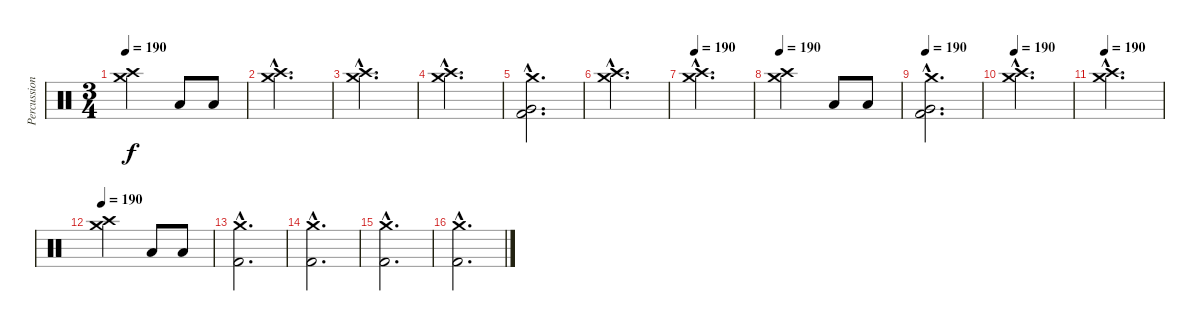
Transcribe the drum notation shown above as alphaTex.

\track ("Percussion" "Percussion") {instrument percussion}
\staff {score}
\articulation defaults
\ts (3 4)
\tempo 190
\clef neutral
\ks c
("Crash medium (hit)" "Crash high (hit)").2{dy f} "Low Tom (hit)".8 "Low Tom (hit)".8 |
("Crash medium (hit)"{hac} "Crash high (hit)"{hac}).2{d} |
("Crash medium (hit)"{hac} "Crash high (hit)"{hac}).2{d} |
("Crash medium (hit)"{hac} "Crash high (hit)"{hac}).2{d} |
("Crash medium (hit)"{hac} "Very Low Tom (hit)"{hac} "Kick (hit) 2"{hac}).2{d} |
("Crash medium (hit)"{hac} "Crash high (hit)"{hac}).2{d} |
\tempo 190
("Crash medium (hit)"{hac} "Crash high (hit)"{hac}).2{d} |
\tempo 190
("Crash medium (hit)" "Crash high (hit)").2 "Low Tom (hit)".8 "Low Tom (hit)".8 |
\tempo 190
("Crash medium (hit)"{hac} "Very Low Tom (hit)"{hac} "Kick (hit) 2"{hac}).2{d} |
\tempo 190
("Crash medium (hit)"{hac} "Crash high (hit)"{hac}).2{d} |
\tempo 190
("Crash medium (hit)"{hac} "Crash high (hit)"{hac}).2{d} |
\tempo 190
("Crash medium (hit)" "Crash high (hit)").2 "Low Tom (hit)".8 "Low Tom (hit)".8 |
("Crash medium (hit)"{hac} "Kick (hit) 2"{hac}).2{d} |
("Crash medium (hit)"{hac} "Kick (hit) 2"{hac}).2{d} |
("Crash medium (hit)"{hac} "Kick (hit) 2"{hac}).2{d} |
("Crash medium (hit)"{hac} "Kick (hit) 2"{hac}).2{d}
